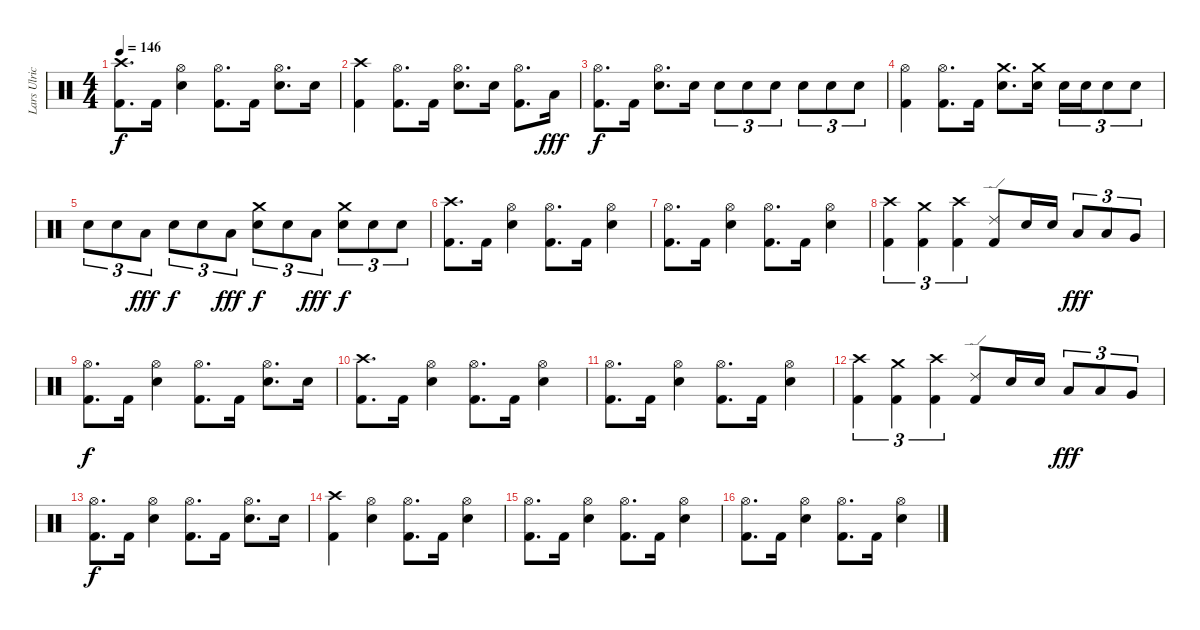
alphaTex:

\track ("Lars Ulrich" "Lars Ulric") {instrument percussion}
\staff {score}
\articulation defaults
\ts (4 4)
\tempo 146
\clef neutral
\ks c
("Crash high (hit)" "Kick (hit) 2").8{d dy f} "Kick (hit) 2".16 ("Hi-Hat (open)" "Electric Snare (hit)").4 ("Hi-Hat (open)" "Kick (hit) 2").8{d} "Kick (hit) 2".16 ("Hi-Hat (open)" "Electric Snare (hit)").8{d} "Electric Snare (hit)".16 |
("Crash high (hit)" "Kick (hit) 2").4 ("Hi-Hat (open)" "Kick (hit) 2").8{d} "Kick (hit) 2".16 ("Hi-Hat (open)" "Electric Snare (hit)").8{d} "Electric Snare (hit)".16 ("Hi-Hat (open)" "Kick (hit) 2").8{d} "Low Tom (hit)".16{dy fff} |
("Hi-Hat (open)" "Kick (hit) 2").8{d dy f} "Kick (hit) 2".16 ("Hi-Hat (open)" "Electric Snare (hit)").8{d} "Electric Snare (hit)".16 "Electric Snare (hit)".8{tu (3 2)} "Electric Snare (hit)".8{tu (3 2)} "Electric Snare (hit)".8{tu (3 2)} "Electric Snare (hit)".8{tu (3 2)} "Electric Snare (hit)".8{tu (3 2)} "Electric Snare (hit)".8{tu (3 2)} |
("Hi-Hat (open)" "Kick (hit) 2").4 ("Hi-Hat (open)" "Kick (hit) 2").8{d} "Kick (hit) 2".16 ("Crash medium (hit)" "Electric Snare (hit)").8{d} ("Crash medium (hit)" "Electric Snare (hit)").16 "Electric Snare (hit)".16{tu (3 2)} "Electric Snare (hit)".16{tu (3 2)} "Electric Snare (hit)".8{tu (3 2)} "Electric Snare (hit)".8{tu (3 2)} |
"Electric Snare (hit)".8{tu (3 2)} "Electric Snare (hit)".8{tu (3 2)} "Low Tom (hit)".8{tu (3 2) dy fff} "Electric Snare (hit)".8{tu (3 2) dy f} "Electric Snare (hit)".8{tu (3 2)} "Low Tom (hit)".8{tu (3 2) dy fff} ("Crash medium (hit)" "Electric Snare (hit)").8{tu (3 2) dy f} "Electric Snare (hit)".8{tu (3 2)} "Low Tom (hit)".8{tu (3 2) dy fff} ("Crash medium (hit)" "Electric Snare (hit)").8{tu (3 2) dy f} "Electric Snare (hit)".8{tu (3 2)} "Electric Snare (hit)".8{tu (3 2)} |
("Crash high (hit)" "Kick (hit) 2").8{d} "Kick (hit) 2".16 ("Hi-Hat (open)" "Electric Snare (hit)").4 ("Hi-Hat (open)" "Kick (hit) 2").8{d} "Kick (hit) 2".16 ("Hi-Hat (open)" "Electric Snare (hit)").4 |
("Hi-Hat (open)" "Kick (hit) 2").8{d} "Kick (hit) 2".16 ("Hi-Hat (open)" "Electric Snare (hit)").4 ("Hi-Hat (open)" "Kick (hit) 2").8{d} "Kick (hit) 2".16 ("Hi-Hat (open)" "Electric Snare (hit)").4 |
("Crash high (hit)" "Kick (hit) 2").4{tu (3 2)} ("Crash medium (hit)" "Kick (hit) 2").4{tu (3 2)} ("Crash high (hit)" "Kick (hit) 2").4{tu (3 2)} ("Ride (edge) 2" "Kick (hit) 2").8 "Electric Snare (hit)".16 "Electric Snare (hit)".16 "Low Tom (hit)".8{tu (3 2) dy fff} "Low Tom (hit)".8{tu (3 2)} "Very Low Tom (hit)".8{tu (3 2)} |
("Hi-Hat (open)" "Kick (hit) 2").8{d dy f} "Kick (hit) 2".16 ("Hi-Hat (open)" "Electric Snare (hit)").4 ("Hi-Hat (open)" "Kick (hit) 2").8{d} "Kick (hit) 2".16 ("Hi-Hat (open)" "Electric Snare (hit)").8{d} "Electric Snare (hit)".16 |
("Crash high (hit)" "Kick (hit) 2").8{d} "Kick (hit) 2".16 ("Hi-Hat (open)" "Electric Snare (hit)").4 ("Hi-Hat (open)" "Kick (hit) 2").8{d} "Kick (hit) 2".16 ("Hi-Hat (open)" "Electric Snare (hit)").4 |
("Hi-Hat (open)" "Kick (hit) 2").8{d} "Kick (hit) 2".16 ("Hi-Hat (open)" "Electric Snare (hit)").4 ("Hi-Hat (open)" "Kick (hit) 2").8{d} "Kick (hit) 2".16 ("Hi-Hat (open)" "Electric Snare (hit)").4 |
("Crash high (hit)" "Kick (hit) 2").4{tu (3 2)} ("Crash medium (hit)" "Kick (hit) 2").4{tu (3 2)} ("Crash high (hit)" "Kick (hit) 2").4{tu (3 2)} ("Ride (edge) 2" "Kick (hit) 2").8 "Electric Snare (hit)".16 "Electric Snare (hit)".16 "Low Tom (hit)".8{tu (3 2) dy fff} "Low Tom (hit)".8{tu (3 2)} "Very Low Tom (hit)".8{tu (3 2)} |
("Hi-Hat (open)" "Kick (hit) 2").8{d dy f} "Kick (hit) 2".16 ("Hi-Hat (open)" "Electric Snare (hit)").4 ("Hi-Hat (open)" "Kick (hit) 2").8{d} "Kick (hit) 2".16 ("Hi-Hat (open)" "Electric Snare (hit)").8{d} "Electric Snare (hit)".16 |
("Crash high (hit)" "Kick (hit) 2").4 ("Hi-Hat (open)" "Electric Snare (hit)").4 ("Hi-Hat (open)" "Kick (hit) 2").8{d} "Kick (hit) 2".16 ("Hi-Hat (open)" "Electric Snare (hit)").4 |
("Hi-Hat (open)" "Kick (hit) 2").8{d} "Kick (hit) 2".16 ("Hi-Hat (open)" "Electric Snare (hit)").4 ("Hi-Hat (open)" "Kick (hit) 2").8{d} "Kick (hit) 2".16 ("Hi-Hat (open)" "Electric Snare (hit)").4 |
("Hi-Hat (open)" "Kick (hit) 2").8{d} "Kick (hit) 2".16 ("Hi-Hat (open)" "Electric Snare (hit)").4 ("Hi-Hat (open)" "Kick (hit) 2").8{d} "Kick (hit) 2".16 ("Hi-Hat (open)" "Electric Snare (hit)").4
